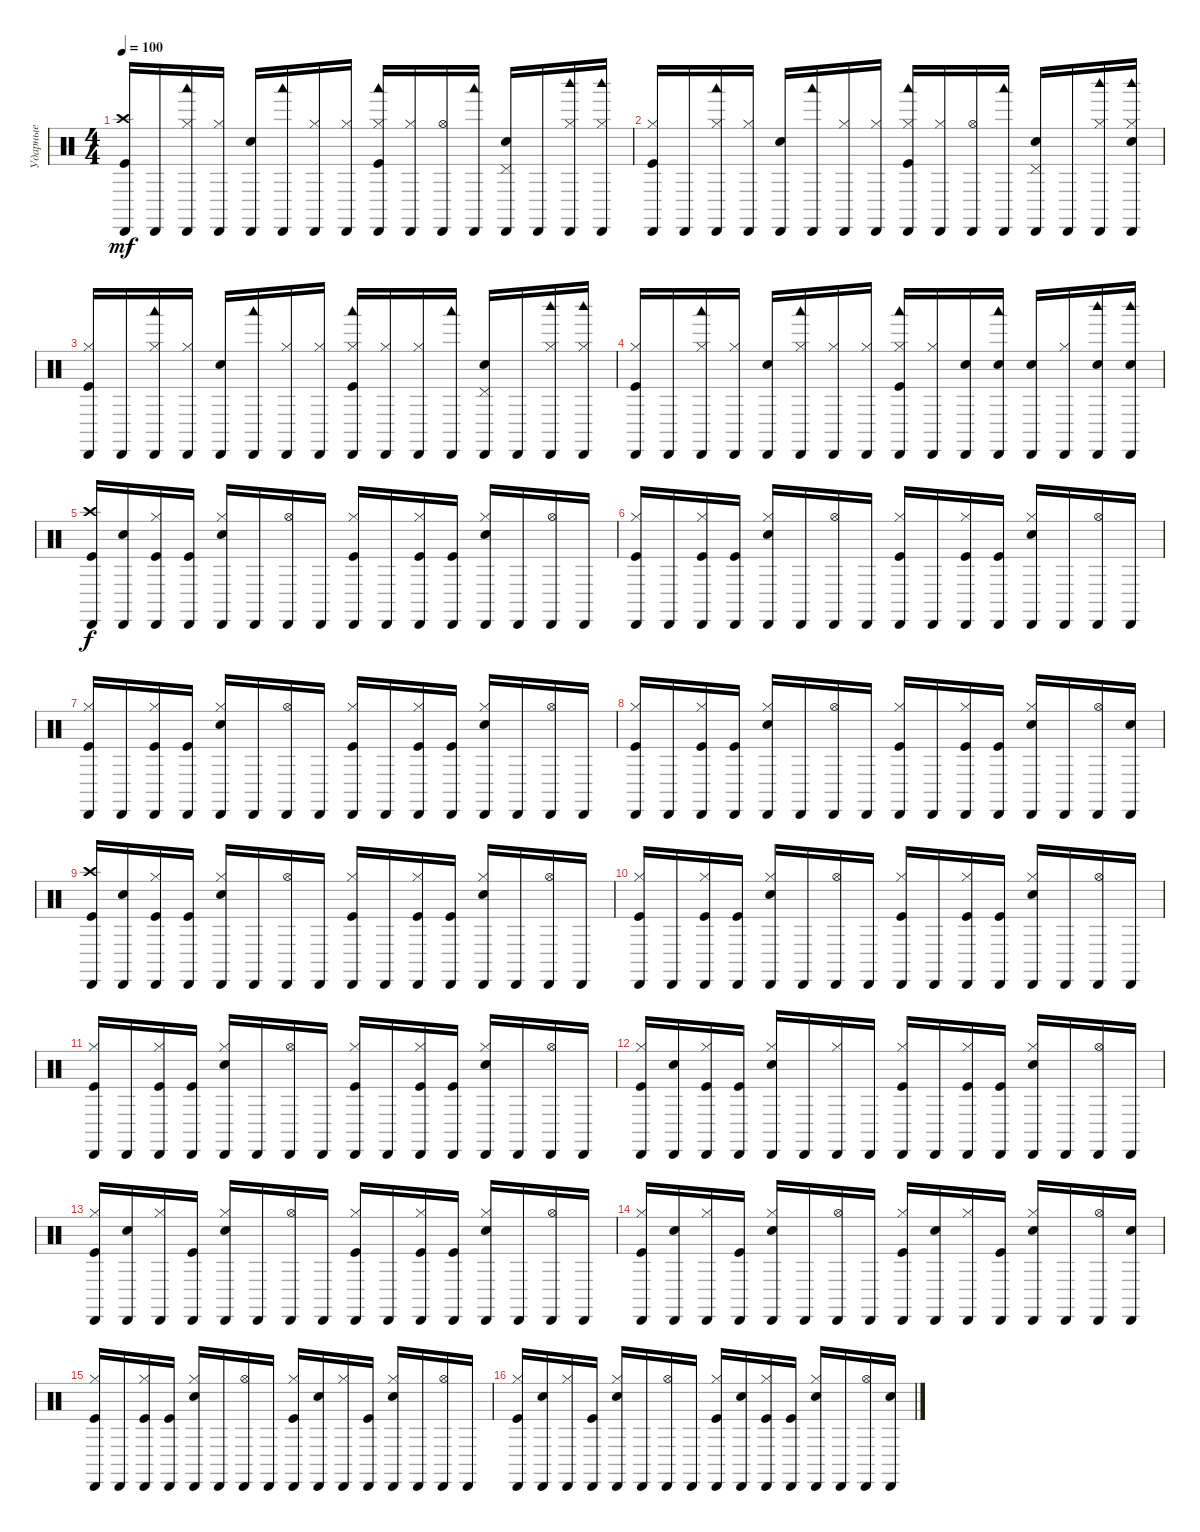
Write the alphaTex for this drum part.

\track ("Ударные" "Ударные") {instrument percussion}
\staff {score}
\articulation defaults
\ts (4 4)
\tempo 100
\clef neutral
\ks c
("Kick (hit)" "Crash high (hit)" "Cabasa (hit)").16{dy mf} "Cabasa (hit)".16 ("Hi-Hat (closed)" "Woodblock low (hit)" "Cabasa (hit)").16 ("Hi-Hat (closed)" "Cabasa (hit)").16 ("Snare (hit) 2" "Cabasa (hit)").16 ("Woodblock low (hit)" "Cabasa (hit)").16 ("Hi-Hat (closed)" "Cabasa (hit)").16 ("Hi-Hat (closed)" "Cabasa (hit)").16 ("Kick (hit)" "Hi-Hat (closed)" "Woodblock low (hit)" "Cabasa (hit)").16 ("Hi-Hat (closed)" "Cabasa (hit)").16 ("Hi-Hat (open)" "Cabasa (hit)").16 ("Woodblock low (hit)" "Cabasa (hit)").16 ("Snare (hit) 2" "Pedal Hi-Hat (hit)" "Cabasa (hit)").16 "Cabasa (hit)".16 ("Hi-Hat (closed)" "Woodblock high (hit)" "Cabasa (hit)").16 ("Hi-Hat (closed)" "Woodblock high (hit)" "Cabasa (hit)").16 |
("Kick (hit)" "Hi-Hat (closed)" "Cabasa (hit)").16 "Cabasa (hit)".16 ("Hi-Hat (closed)" "Woodblock low (hit)" "Cabasa (hit)").16 ("Hi-Hat (closed)" "Cabasa (hit)").16 ("Snare (hit) 2" "Cabasa (hit)").16 ("Woodblock low (hit)" "Cabasa (hit)").16 ("Hi-Hat (closed)" "Cabasa (hit)").16 ("Hi-Hat (closed)" "Cabasa (hit)").16 ("Kick (hit)" "Hi-Hat (closed)" "Woodblock low (hit)" "Cabasa (hit)").16 ("Hi-Hat (closed)" "Cabasa (hit)").16 ("Hi-Hat (open)" "Cabasa (hit)").16 ("Woodblock low (hit)" "Cabasa (hit)").16 ("Snare (hit) 2" "Pedal Hi-Hat (hit)" "Cabasa (hit)").16 "Cabasa (hit)".16 ("Hi-Hat (closed)" "Woodblock high (hit)" "Cabasa (hit)").16 ("Snare (hit) 2" "Hi-Hat (closed)" "Woodblock high (hit)" "Cabasa (hit)").16 |
("Kick (hit)" "Hi-Hat (closed)" "Cabasa (hit)").16 "Cabasa (hit)".16 ("Hi-Hat (closed)" "Woodblock low (hit)" "Cabasa (hit)").16 ("Hi-Hat (closed)" "Cabasa (hit)").16 ("Snare (hit) 2" "Cabasa (hit)").16 ("Woodblock low (hit)" "Cabasa (hit)").16 ("Hi-Hat (closed)" "Cabasa (hit)").16 ("Hi-Hat (closed)" "Cabasa (hit)").16 ("Kick (hit)" "Hi-Hat (closed)" "Woodblock low (hit)" "Cabasa (hit)").16 ("Hi-Hat (closed)" "Cabasa (hit)").16 ("Hi-Hat (closed)" "Cabasa (hit)").16 ("Woodblock low (hit)" "Cabasa (hit)").16 ("Snare (hit) 2" "Pedal Hi-Hat (hit)" "Cabasa (hit)").16 "Cabasa (hit)".16 ("Hi-Hat (closed)" "Woodblock high (hit)" "Cabasa (hit)").16 ("Hi-Hat (closed)" "Woodblock high (hit)" "Cabasa (hit)").16 |
("Kick (hit)" "Hi-Hat (closed)" "Cabasa (hit)").16 "Cabasa (hit)".16 ("Hi-Hat (closed)" "Woodblock low (hit)" "Cabasa (hit)").16 ("Hi-Hat (closed)" "Cabasa (hit)").16 ("Snare (hit) 2" "Cabasa (hit)").16 ("Hi-Hat (closed)" "Woodblock low (hit)" "Cabasa (hit)").16 ("Hi-Hat (closed)" "Cabasa (hit)").16 ("Hi-Hat (closed)" "Cabasa (hit)").16 ("Kick (hit)" "Hi-Hat (closed)" "Woodblock low (hit)" "Cabasa (hit)").16 ("Hi-Hat (closed)" "Cabasa (hit)").16 ("Snare (hit) 2" "Cabasa (hit)").16 ("Snare (hit) 2" "Woodblock low (hit)" "Cabasa (hit)").16 ("Snare (hit) 2" "Cabasa (hit)").16 ("Hi-Hat (closed)" "Cabasa (hit)").16 ("Snare (hit) 2" "Woodblock high (hit)" "Cabasa (hit)").16 ("Snare (hit) 2" "Woodblock high (hit)" "Cabasa (hit)").16 |
("Crash high (hit)" "Kick (hit)" "Cabasa (hit)").16{dy f} ("Snare (hit) 2" "Cabasa (hit)").16 ("Hi-Hat (closed)" "Kick (hit)" "Cabasa (hit)").16 ("Kick (hit)" "Cabasa (hit)").16 ("Hi-Hat (closed)" "Snare (hit) 2" "Cabasa (hit)").16 "Cabasa (hit)".16 ("Hi-Hat (open)" "Cabasa (hit)").16 "Cabasa (hit)".16 ("Hi-Hat (closed)" "Kick (hit)" "Cabasa (hit)").16 "Cabasa (hit)".16 ("Hi-Hat (closed)" "Kick (hit)" "Cabasa (hit)").16 ("Kick (hit)" "Cabasa (hit)").16 ("Hi-Hat (closed)" "Snare (hit) 2" "Cabasa (hit)").16 "Cabasa (hit)".16 ("Hi-Hat (open)" "Cabasa (hit)").16 "Cabasa (hit)".16 |
("Hi-Hat (closed)" "Kick (hit)" "Cabasa (hit)").16 "Cabasa (hit)".16 ("Hi-Hat (closed)" "Kick (hit)" "Cabasa (hit)").16 ("Kick (hit)" "Cabasa (hit)").16 ("Hi-Hat (closed)" "Snare (hit) 2" "Cabasa (hit)").16 "Cabasa (hit)".16 ("Hi-Hat (open)" "Cabasa (hit)").16 "Cabasa (hit)".16 ("Hi-Hat (closed)" "Kick (hit)" "Cabasa (hit)").16 "Cabasa (hit)".16 ("Hi-Hat (closed)" "Kick (hit)" "Cabasa (hit)").16 ("Kick (hit)" "Cabasa (hit)").16 ("Hi-Hat (closed)" "Snare (hit) 2" "Cabasa (hit)").16 "Cabasa (hit)".16 ("Hi-Hat (open)" "Cabasa (hit)").16 "Cabasa (hit)".16 |
("Hi-Hat (closed)" "Kick (hit)" "Cabasa (hit)").16 "Cabasa (hit)".16 ("Hi-Hat (closed)" "Kick (hit)" "Cabasa (hit)").16 ("Kick (hit)" "Cabasa (hit)").16 ("Hi-Hat (closed)" "Snare (hit) 2" "Cabasa (hit)").16 "Cabasa (hit)".16 ("Hi-Hat (open)" "Cabasa (hit)").16 "Cabasa (hit)".16 ("Hi-Hat (closed)" "Kick (hit)" "Cabasa (hit)").16 "Cabasa (hit)".16 ("Hi-Hat (closed)" "Kick (hit)" "Cabasa (hit)").16 ("Kick (hit)" "Cabasa (hit)").16 ("Hi-Hat (closed)" "Snare (hit) 2" "Cabasa (hit)").16 "Cabasa (hit)".16 ("Hi-Hat (open)" "Cabasa (hit)").16 "Cabasa (hit)".16 |
("Hi-Hat (closed)" "Kick (hit)" "Cabasa (hit)").16 "Cabasa (hit)".16 ("Hi-Hat (closed)" "Kick (hit)" "Cabasa (hit)").16 ("Kick (hit)" "Cabasa (hit)").16 ("Hi-Hat (closed)" "Snare (hit) 2" "Cabasa (hit)").16 "Cabasa (hit)".16 ("Hi-Hat (open)" "Cabasa (hit)").16 "Cabasa (hit)".16 ("Hi-Hat (closed)" "Kick (hit)" "Cabasa (hit)").16 "Cabasa (hit)".16 ("Hi-Hat (closed)" "Kick (hit)" "Cabasa (hit)").16 ("Kick (hit)" "Cabasa (hit)").16 ("Hi-Hat (closed)" "Snare (hit) 2" "Cabasa (hit)").16 "Cabasa (hit)".16 ("Hi-Hat (open)" "Cabasa (hit)").16 ("Snare (hit) 2" "Cabasa (hit)").16 |
("Crash high (hit)" "Kick (hit)" "Cabasa (hit)").16 ("Snare (hit) 2" "Cabasa (hit)").16 ("Hi-Hat (closed)" "Kick (hit)" "Cabasa (hit)").16 ("Kick (hit)" "Cabasa (hit)").16 ("Hi-Hat (closed)" "Snare (hit) 2" "Cabasa (hit)").16 "Cabasa (hit)".16 ("Hi-Hat (open)" "Cabasa (hit)").16 "Cabasa (hit)".16 ("Hi-Hat (closed)" "Kick (hit)" "Cabasa (hit)").16 "Cabasa (hit)".16 ("Hi-Hat (closed)" "Kick (hit)" "Cabasa (hit)").16 ("Kick (hit)" "Cabasa (hit)").16 ("Hi-Hat (closed)" "Snare (hit) 2" "Cabasa (hit)").16 "Cabasa (hit)".16 ("Hi-Hat (open)" "Cabasa (hit)").16 "Cabasa (hit)".16 |
("Hi-Hat (closed)" "Kick (hit)" "Cabasa (hit)").16 "Cabasa (hit)".16 ("Hi-Hat (closed)" "Kick (hit)" "Cabasa (hit)").16 ("Kick (hit)" "Cabasa (hit)").16 ("Hi-Hat (closed)" "Snare (hit) 2" "Cabasa (hit)").16 "Cabasa (hit)".16 ("Hi-Hat (open)" "Cabasa (hit)").16 "Cabasa (hit)".16 ("Hi-Hat (closed)" "Kick (hit)" "Cabasa (hit)").16 "Cabasa (hit)".16 ("Hi-Hat (closed)" "Kick (hit)" "Cabasa (hit)").16 ("Kick (hit)" "Cabasa (hit)").16 ("Hi-Hat (closed)" "Snare (hit) 2" "Cabasa (hit)").16 "Cabasa (hit)".16 ("Hi-Hat (open)" "Cabasa (hit)").16 "Cabasa (hit)".16 |
("Hi-Hat (closed)" "Kick (hit)" "Cabasa (hit)").16 "Cabasa (hit)".16 ("Hi-Hat (closed)" "Kick (hit)" "Cabasa (hit)").16 ("Kick (hit)" "Cabasa (hit)").16 ("Hi-Hat (closed)" "Snare (hit) 2" "Cabasa (hit)").16 "Cabasa (hit)".16 ("Hi-Hat (open)" "Cabasa (hit)").16 "Cabasa (hit)".16 ("Hi-Hat (closed)" "Kick (hit)" "Cabasa (hit)").16 "Cabasa (hit)".16 ("Hi-Hat (closed)" "Kick (hit)" "Cabasa (hit)").16 ("Kick (hit)" "Cabasa (hit)").16 ("Hi-Hat (closed)" "Snare (hit) 2" "Cabasa (hit)").16 "Cabasa (hit)".16 ("Hi-Hat (open)" "Cabasa (hit)").16 "Cabasa (hit)".16 |
("Hi-Hat (closed)" "Kick (hit)" "Cabasa (hit)").16 ("Snare (hit) 2" "Cabasa (hit)").16 ("Hi-Hat (closed)" "Kick (hit)" "Cabasa (hit)").16 ("Kick (hit)" "Cabasa (hit)").16 ("Hi-Hat (closed)" "Snare (hit) 2" "Cabasa (hit)").16 "Cabasa (hit)".16 ("Hi-Hat (closed)" "Cabasa (hit)").16 "Cabasa (hit)".16 ("Hi-Hat (closed)" "Kick (hit)" "Cabasa (hit)").16 "Cabasa (hit)".16 ("Hi-Hat (closed)" "Kick (hit)" "Cabasa (hit)").16 ("Kick (hit)" "Cabasa (hit)").16 ("Hi-Hat (closed)" "Snare (hit) 2" "Cabasa (hit)").16 "Cabasa (hit)".16 ("Hi-Hat (open)" "Cabasa (hit)").16 "Cabasa (hit)".16 |
("Hi-Hat (closed)" "Kick (hit)" "Cabasa (hit)").16 ("Snare (hit) 2" "Cabasa (hit)").16 ("Hi-Hat (closed)" "Cabasa (hit)").16 ("Kick (hit)" "Cabasa (hit)").16 ("Hi-Hat (closed)" "Snare (hit) 2" "Cabasa (hit)").16 "Cabasa (hit)".16 ("Hi-Hat (open)" "Cabasa (hit)").16 "Cabasa (hit)".16 ("Hi-Hat (closed)" "Kick (hit)" "Cabasa (hit)").16 "Cabasa (hit)".16 ("Hi-Hat (closed)" "Kick (hit)" "Cabasa (hit)").16 ("Kick (hit)" "Cabasa (hit)").16 ("Hi-Hat (closed)" "Snare (hit) 2" "Cabasa (hit)").16 "Cabasa (hit)".16 ("Hi-Hat (open)" "Cabasa (hit)").16 "Cabasa (hit)".16 |
("Hi-Hat (closed)" "Kick (hit)" "Cabasa (hit)").16 ("Snare (hit) 2" "Cabasa (hit)").16 ("Hi-Hat (closed)" "Cabasa (hit)").16 ("Kick (hit)" "Cabasa (hit)").16 ("Hi-Hat (closed)" "Snare (hit) 2" "Cabasa (hit)").16 "Cabasa (hit)".16 ("Hi-Hat (open)" "Cabasa (hit)").16 "Cabasa (hit)".16 ("Hi-Hat (closed)" "Kick (hit)" "Cabasa (hit)").16 ("Snare (hit) 2" "Cabasa (hit)").16 ("Hi-Hat (closed)" "Cabasa (hit)").16 ("Kick (hit)" "Cabasa (hit)").16 ("Hi-Hat (closed)" "Snare (hit) 2" "Cabasa (hit)").16 "Cabasa (hit)".16 ("Hi-Hat (open)" "Cabasa (hit)").16 ("Snare (hit) 2" "Cabasa (hit)").16 |
("Hi-Hat (closed)" "Kick (hit)" "Cabasa (hit)").16 "Cabasa (hit)".16 ("Hi-Hat (closed)" "Kick (hit)" "Cabasa (hit)").16 ("Kick (hit)" "Cabasa (hit)").16 ("Hi-Hat (closed)" "Snare (hit) 2" "Cabasa (hit)").16 "Cabasa (hit)".16 ("Hi-Hat (open)" "Cabasa (hit)").16 "Cabasa (hit)".16 ("Hi-Hat (closed)" "Kick (hit)" "Cabasa (hit)").16 ("Snare (hit) 2" "Cabasa (hit)").16 ("Hi-Hat (closed)" "Cabasa (hit)").16 ("Kick (hit)" "Cabasa (hit)").16 ("Hi-Hat (closed)" "Snare (hit) 2" "Cabasa (hit)").16 "Cabasa (hit)".16 ("Hi-Hat (open)" "Cabasa (hit)").16 "Cabasa (hit)".16 |
("Hi-Hat (closed)" "Kick (hit)" "Cabasa (hit)").16 ("Snare (hit) 2" "Cabasa (hit)").16 ("Hi-Hat (closed)" "Cabasa (hit)").16 ("Kick (hit)" "Cabasa (hit)").16 ("Hi-Hat (closed)" "Snare (hit) 2" "Cabasa (hit)").16 "Cabasa (hit)".16 ("Hi-Hat (open)" "Cabasa (hit)").16 "Cabasa (hit)".16 ("Hi-Hat (closed)" "Kick (hit)" "Cabasa (hit)").16 ("Snare (hit) 2" "Cabasa (hit)").16 ("Hi-Hat (closed)" "Kick (hit)" "Cabasa (hit)").16 ("Kick (hit)" "Cabasa (hit)").16 ("Hi-Hat (closed)" "Snare (hit) 2" "Cabasa (hit)").16 "Cabasa (hit)".16 ("Hi-Hat (open)" "Cabasa (hit)").16 ("Snare (hit) 2" "Cabasa (hit)").16
